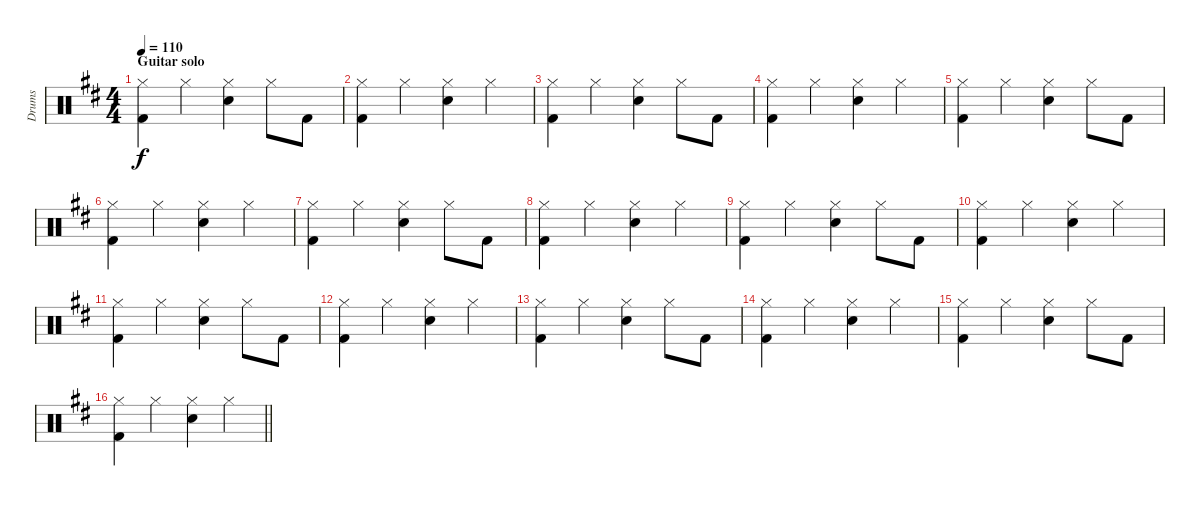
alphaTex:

\track ("Drums" "Drums") {instrument percussion}
\staff {score}
\articulation defaults
\ts (4 4)
\section ("" "Guitar solo")
\tempo 110
\clef neutral
\ks bminor
("Hi-Hat (closed)" "Kick (hit) 2").4{dy f} "Hi-Hat (closed)".4 ("Hi-Hat (closed)" "Electric Snare (hit)").4 "Hi-Hat (closed)".8 "Kick (hit) 2".8 |
("Hi-Hat (closed)" "Kick (hit) 2").4 "Hi-Hat (closed)".4 ("Hi-Hat (closed)" "Electric Snare (hit)").4 "Hi-Hat (closed)".4 |
("Hi-Hat (closed)" "Kick (hit) 2").4 "Hi-Hat (closed)".4 ("Hi-Hat (closed)" "Electric Snare (hit)").4 "Hi-Hat (closed)".8 "Kick (hit) 2".8 |
("Hi-Hat (closed)" "Kick (hit) 2").4 "Hi-Hat (closed)".4 ("Hi-Hat (closed)" "Electric Snare (hit)").4 "Hi-Hat (closed)".4 |
("Hi-Hat (closed)" "Kick (hit) 2").4 "Hi-Hat (closed)".4 ("Hi-Hat (closed)" "Electric Snare (hit)").4 "Hi-Hat (closed)".8 "Kick (hit) 2".8 |
("Hi-Hat (closed)" "Kick (hit) 2").4 "Hi-Hat (closed)".4 ("Hi-Hat (closed)" "Electric Snare (hit)").4 "Hi-Hat (closed)".4 |
("Hi-Hat (closed)" "Kick (hit) 2").4 "Hi-Hat (closed)".4 ("Hi-Hat (closed)" "Electric Snare (hit)").4 "Hi-Hat (closed)".8 "Kick (hit) 2".8 |
("Hi-Hat (closed)" "Kick (hit) 2").4 "Hi-Hat (closed)".4 ("Hi-Hat (closed)" "Electric Snare (hit)").4 "Hi-Hat (closed)".4 |
("Hi-Hat (closed)" "Kick (hit) 2").4 "Hi-Hat (closed)".4 ("Hi-Hat (closed)" "Electric Snare (hit)").4 "Hi-Hat (closed)".8 "Kick (hit) 2".8 |
("Hi-Hat (closed)" "Kick (hit) 2").4 "Hi-Hat (closed)".4 ("Hi-Hat (closed)" "Electric Snare (hit)").4 "Hi-Hat (closed)".4 |
("Hi-Hat (closed)" "Kick (hit) 2").4 "Hi-Hat (closed)".4 ("Hi-Hat (closed)" "Electric Snare (hit)").4 "Hi-Hat (closed)".8 "Kick (hit) 2".8 |
("Hi-Hat (closed)" "Kick (hit) 2").4 "Hi-Hat (closed)".4 ("Hi-Hat (closed)" "Electric Snare (hit)").4 "Hi-Hat (closed)".4 |
("Hi-Hat (closed)" "Kick (hit) 2").4 "Hi-Hat (closed)".4 ("Hi-Hat (closed)" "Electric Snare (hit)").4 "Hi-Hat (closed)".8 "Kick (hit) 2".8 |
("Hi-Hat (closed)" "Kick (hit) 2").4 "Hi-Hat (closed)".4 ("Hi-Hat (closed)" "Electric Snare (hit)").4 "Hi-Hat (closed)".4 |
("Hi-Hat (closed)" "Kick (hit) 2").4 "Hi-Hat (closed)".4 ("Hi-Hat (closed)" "Electric Snare (hit)").4 "Hi-Hat (closed)".8 "Kick (hit) 2".8 |
\barLineRight lightlight
("Hi-Hat (closed)" "Kick (hit) 2").4 "Hi-Hat (closed)".4 ("Hi-Hat (closed)" "Electric Snare (hit)").4 "Hi-Hat (closed)".4
